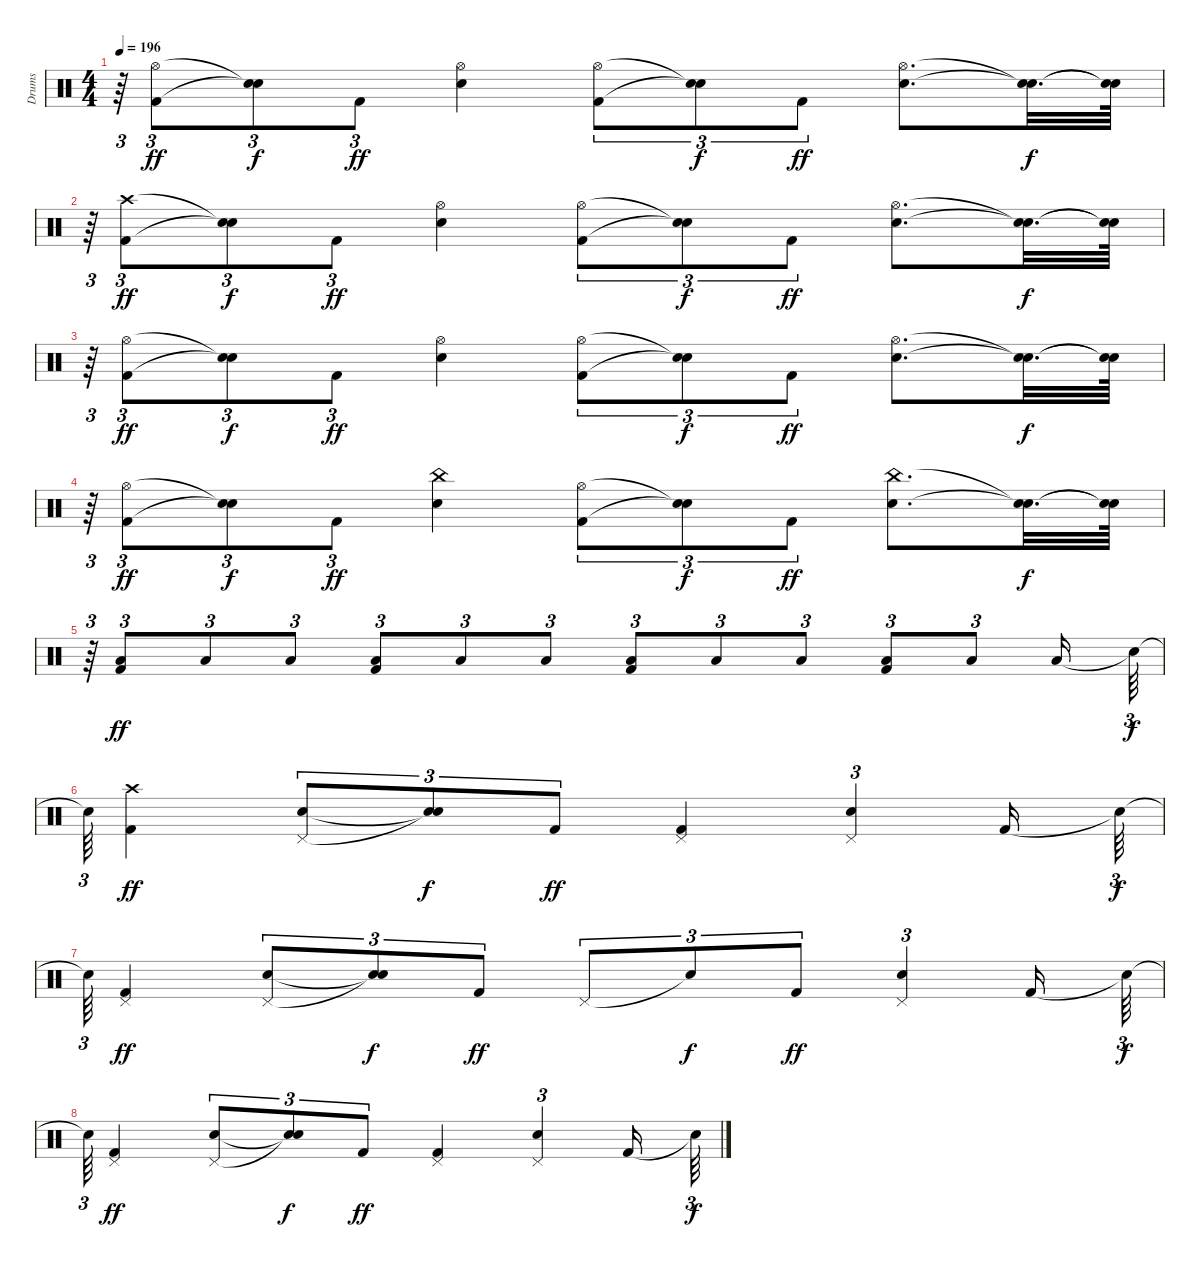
\track ("Drums" "Drums") {instrument percussion}
\staff {score}
\articulation defaults
\ts (4 4)
\tempo 196
\clef neutral
\ks c
r.64{tu (3 2) dy f} ("Kick (hit) 2" "Hi-Hat (open)").8{tu (3 2) dy ff} ("Snare (hit)"{t} "Snare (hit)"{t}).8{tu (3 2) dy f} "Kick (hit) 2".8{tu (3 2) dy ff} ("Hi-Hat (open)" "Electric Snare (hit)").4 ("Kick (hit) 2" "Hi-Hat (open)").8{tu (3 2)} ("Snare (hit)"{t} "Snare (hit)"{t}).8{tu (3 2) dy f} "Kick (hit) 2".8{tu (3 2) dy ff} ("Hi-Hat (open)" "Electric Snare (hit)").8{d} ("Snare (hit)"{t} "Snare (hit)"{t}).32{d dy f} ("Snare (hit)"{t} "Snare (hit)"{t}).64 |
r.64{tu (3 2)} ("Kick (hit) 2" "Crash high (hit)").8{tu (3 2) dy ff} ("Snare (hit)"{t} "Snare (hit)"{t}).8{tu (3 2) dy f} "Kick (hit) 2".8{tu (3 2) dy ff} ("Hi-Hat (open)" "Electric Snare (hit)").4 ("Kick (hit) 2" "Hi-Hat (open)").8{tu (3 2)} ("Snare (hit)"{t} "Snare (hit)"{t}).8{tu (3 2) dy f} "Kick (hit) 2".8{tu (3 2) dy ff} ("Hi-Hat (open)" "Electric Snare (hit)").8{d} ("Snare (hit)"{t} "Snare (hit)"{t}).32{d dy f} ("Snare (hit)"{t} "Snare (hit)"{t}).64 |
r.64{tu (3 2)} ("Kick (hit) 2" "Hi-Hat (open)").8{tu (3 2) dy ff} ("Snare (hit)"{t} "Snare (hit)"{t}).8{tu (3 2) dy f} "Kick (hit) 2".8{tu (3 2) dy ff} ("Hi-Hat (open)" "Electric Snare (hit)").4 ("Kick (hit) 2" "Hi-Hat (open)").8{tu (3 2)} ("Snare (hit)"{t} "Snare (hit)"{t}).8{tu (3 2) dy f} "Kick (hit) 2".8{tu (3 2) dy ff} ("Hi-Hat (open)" "Electric Snare (hit)").8{d} ("Snare (hit)"{t} "Snare (hit)"{t}).32{d dy f} ("Snare (hit)"{t} "Snare (hit)"{t}).64 |
r.64{tu (3 2)} ("Hi-Hat (open)" "Kick (hit) 2").8{tu (3 2) dy ff} ("Snare (hit)"{t} "Snare (hit)"{t}).8{tu (3 2) dy f} "Kick (hit) 2".8{tu (3 2) dy ff} ("China (hit)" "Electric Snare (hit)").4 ("Hi-Hat (open)" "Kick (hit) 2").8{tu (3 2)} ("Snare (hit)"{t} "Snare (hit)"{t}).8{tu (3 2) dy f} "Kick (hit) 2".8{tu (3 2) dy ff} ("China (hit)" "Electric Snare (hit)").8{d} ("Snare (hit)"{t} "Snare (hit)"{t}).32{d dy f} ("Snare (hit)"{t} "Snare (hit)"{t}).64 |
r.64{tu (3 2)} ("Kick (hit) 2" "Low Tom (hit)").8{tu (3 2) dy ff} "Low Tom (hit)".8{tu (3 2)} "Low Tom (hit)".8{tu (3 2)} ("Kick (hit) 2" "Low Tom (hit)").8{tu (3 2)} "Low Tom (hit)".8{tu (3 2)} "Low Tom (hit)".8{tu (3 2)} ("Kick (hit) 2" "Low Tom (hit)").8{tu (3 2)} "Low Tom (hit)".8{tu (3 2)} "Low Tom (hit)".8{tu (3 2)} ("Kick (hit) 2" "Low Tom (hit)").8{tu (3 2)} "Low Tom (hit)".8{tu (3 2)} "Low Tom (hit)".16 "Snare (hit)"{t}.64{tu (3 2) dy f} |
"Snare (hit)"{t}.64{tu (3 2)} ("Crash high (hit)" "Kick (hit) 2").4{dy ff} ("Pedal Hi-Hat (hit)" "Electric Snare (hit)").8{tu (3 2)} ("Snare (hit)"{t} "Snare (hit)"{t}).8{tu (3 2) dy f} "Kick (hit) 2".8{tu (3 2) dy ff} ("Pedal Hi-Hat (hit)" "Kick (hit) 2").4 ("Pedal Hi-Hat (hit)" "Electric Snare (hit)").4{tu (3 2)} "Kick (hit) 2".16 "Snare (hit)"{t}.64{tu (3 2) dy f} |
"Snare (hit)"{t}.64{tu (3 2)} ("Pedal Hi-Hat (hit)" "Kick (hit) 2").4{dy ff} ("Pedal Hi-Hat (hit)" "Electric Snare (hit)").8{tu (3 2)} ("Snare (hit)"{t} "Snare (hit)"{t}).8{tu (3 2) dy f} "Kick (hit) 2".8{tu (3 2) dy ff} "Pedal Hi-Hat (hit)".8{tu (3 2)} "Snare (hit)"{t}.8{tu (3 2) dy f} "Kick (hit) 2".8{tu (3 2) dy ff} ("Pedal Hi-Hat (hit)" "Electric Snare (hit)").4{tu (3 2)} "Kick (hit) 2".16 "Snare (hit)"{t}.64{tu (3 2) dy f} |
"Snare (hit)"{t}.64{tu (3 2)} ("Pedal Hi-Hat (hit)" "Kick (hit) 2").4{dy ff} ("Pedal Hi-Hat (hit)" "Electric Snare (hit)").8{tu (3 2)} ("Snare (hit)"{t} "Snare (hit)"{t}).8{tu (3 2) dy f} "Kick (hit) 2".8{tu (3 2) dy ff} ("Pedal Hi-Hat (hit)" "Kick (hit) 2").4 ("Pedal Hi-Hat (hit)" "Electric Snare (hit)").4{tu (3 2)} "Kick (hit) 2".16 "Snare (hit)"{t}.64{tu (3 2) dy f}
